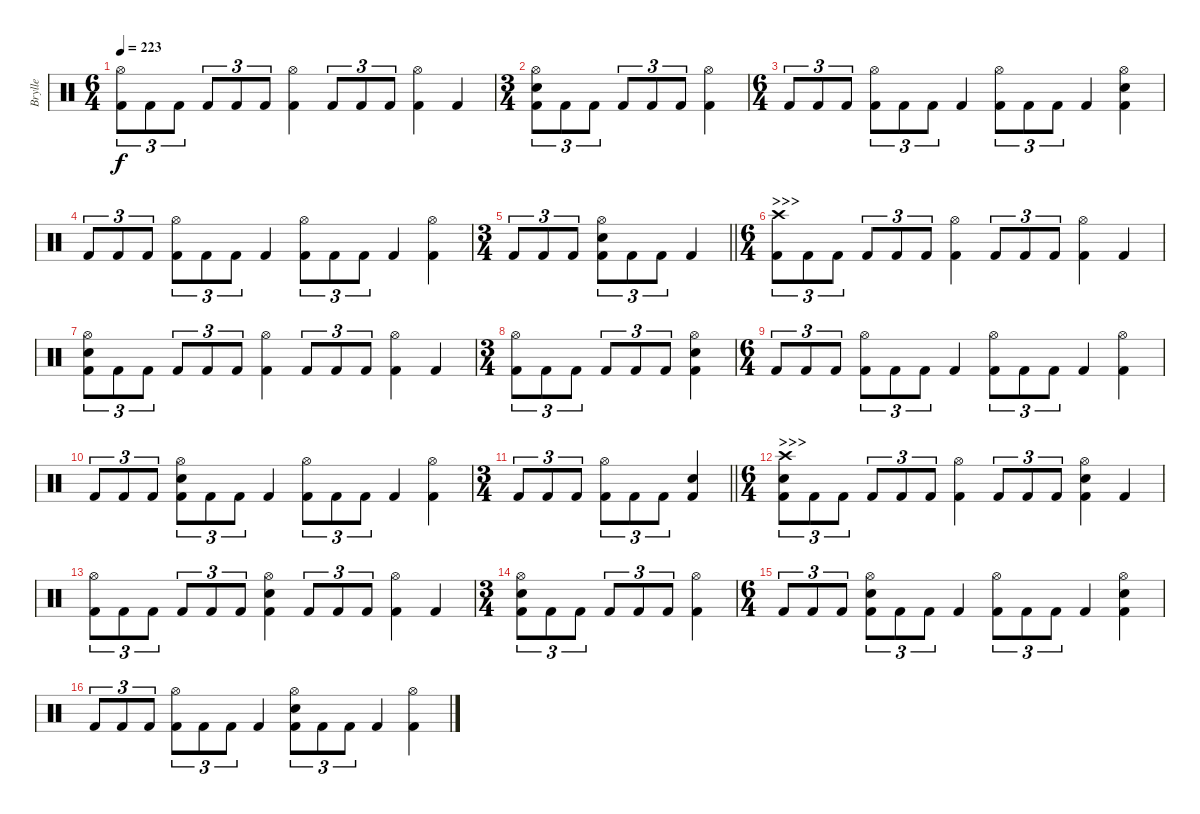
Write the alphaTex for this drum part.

\track ("Brylle" "Brylle") {instrument percussion}
\staff {score}
\articulation defaults
\ts (6 4)
\tempo 223
\clef neutral
\ks c
("Hi-Hat (open)" "Kick (hit) 2").8{tu (3 2) dy f} "Kick (hit) 2".8{tu (3 2)} "Kick (hit) 2".8{tu (3 2)} "Kick (hit) 2".8{tu (3 2)} "Kick (hit) 2".8{tu (3 2)} "Kick (hit) 2".8{tu (3 2)} ("Hi-Hat (open)" "Kick (hit) 2").4 "Kick (hit) 2".8{tu (3 2)} "Kick (hit) 2".8{tu (3 2)} "Kick (hit) 2".8{tu (3 2)} ("Hi-Hat (open)" "Kick (hit) 2").4 "Kick (hit) 2".4 |
\ts (3 4)
("Hi-Hat (open)" "Electric Snare (hit)" "Kick (hit) 2").8{tu (3 2)} "Kick (hit) 2".8{tu (3 2)} "Kick (hit) 2".8{tu (3 2)} "Kick (hit) 2".8{tu (3 2)} "Kick (hit) 2".8{tu (3 2)} "Kick (hit) 2".8{tu (3 2)} ("Hi-Hat (open)" "Kick (hit) 2").4 |
\ts (6 4)
"Kick (hit) 2".8{tu (3 2)} "Kick (hit) 2".8{tu (3 2)} "Kick (hit) 2".8{tu (3 2)} ("Hi-Hat (open)" "Kick (hit) 2").8{tu (3 2)} "Kick (hit) 2".8{tu (3 2)} "Kick (hit) 2".8{tu (3 2)} "Kick (hit) 2".4 ("Hi-Hat (open)" "Kick (hit) 2").8{tu (3 2)} "Kick (hit) 2".8{tu (3 2)} "Kick (hit) 2".8{tu (3 2)} "Kick (hit) 2".4 ("Hi-Hat (open)" "Electric Snare (hit)" "Kick (hit) 2").4 |
"Kick (hit) 2".8{tu (3 2)} "Kick (hit) 2".8{tu (3 2)} "Kick (hit) 2".8{tu (3 2)} ("Hi-Hat (open)" "Kick (hit) 2").8{tu (3 2)} "Kick (hit) 2".8{tu (3 2)} "Kick (hit) 2".8{tu (3 2)} "Kick (hit) 2".4 ("Hi-Hat (open)" "Kick (hit) 2").8{tu (3 2)} "Kick (hit) 2".8{tu (3 2)} "Kick (hit) 2".8{tu (3 2)} "Kick (hit) 2".4 ("Hi-Hat (open)" "Kick (hit) 2").4 |
\ts (3 4)
\barLineRight lightlight "Kick (hit) 2".8{tu (3 2)} "Kick (hit) 2".8{tu (3 2)} "Kick (hit) 2".8{tu (3 2)}
("Hi-Hat (open)" "Electric Snare (hit)" "Kick (hit) 2").8{tu (3 2)} "Kick (hit) 2".8{tu (3 2)} "Kick (hit) 2".8{tu (3 2)} "Kick (hit) 2".4 |
\ts (6 4)
\section ("" ">>>")
("Crash high (hit)" "Kick (hit) 2").8{tu (3 2)} "Kick (hit) 2".8{tu (3 2)} "Kick (hit) 2".8{tu (3 2)} "Kick (hit) 2".8{tu (3 2)} "Kick (hit) 2".8{tu (3 2)} "Kick (hit) 2".8{tu (3 2)} ("Hi-Hat (open)" "Kick (hit) 2").4 "Kick (hit) 2".8{tu (3 2)} "Kick (hit) 2".8{tu (3 2)} "Kick (hit) 2".8{tu (3 2)} ("Hi-Hat (open)" "Kick (hit) 2").4 "Kick (hit) 2".4 |
("Hi-Hat (open)" "Electric Snare (hit)" "Kick (hit) 2").8{tu (3 2)} "Kick (hit) 2".8{tu (3 2)} "Kick (hit) 2".8{tu (3 2)} "Kick (hit) 2".8{tu (3 2)} "Kick (hit) 2".8{tu (3 2)} "Kick (hit) 2".8{tu (3 2)} ("Hi-Hat (open)" "Kick (hit) 2").4 "Kick (hit) 2".8{tu (3 2)} "Kick (hit) 2".8{tu (3 2)} "Kick (hit) 2".8{tu (3 2)} ("Hi-Hat (open)" "Kick (hit) 2").4 "Kick (hit) 2".4 |
\ts (3 4)
("Hi-Hat (open)" "Kick (hit) 2").8{tu (3 2)} "Kick (hit) 2".8{tu (3 2)} "Kick (hit) 2".8{tu (3 2)} "Kick (hit) 2".8{tu (3 2)} "Kick (hit) 2".8{tu (3 2)} "Kick (hit) 2".8{tu (3 2)} ("Hi-Hat (open)" "Electric Snare (hit)" "Kick (hit) 2").4 |
\ts (6 4)
"Kick (hit) 2".8{tu (3 2)} "Kick (hit) 2".8{tu (3 2)} "Kick (hit) 2".8{tu (3 2)} ("Hi-Hat (open)" "Kick (hit) 2").8{tu (3 2)} "Kick (hit) 2".8{tu (3 2)} "Kick (hit) 2".8{tu (3 2)} "Kick (hit) 2".4 ("Hi-Hat (open)" "Kick (hit) 2").8{tu (3 2)} "Kick (hit) 2".8{tu (3 2)} "Kick (hit) 2".8{tu (3 2)} "Kick (hit) 2".4 ("Hi-Hat (open)" "Kick (hit) 2").4 |
"Kick (hit) 2".8{tu (3 2)} "Kick (hit) 2".8{tu (3 2)} "Kick (hit) 2".8{tu (3 2)} ("Hi-Hat (open)" "Electric Snare (hit)" "Kick (hit) 2").8{tu (3 2)} "Kick (hit) 2".8{tu (3 2)} "Kick (hit) 2".8{tu (3 2)} "Kick (hit) 2".4 ("Hi-Hat (open)" "Kick (hit) 2").8{tu (3 2)} "Kick (hit) 2".8{tu (3 2)} "Kick (hit) 2".8{tu (3 2)} "Kick (hit) 2".4 ("Hi-Hat (open)" "Kick (hit) 2").4 |
\ts (3 4)
\barLineRight lightlight "Kick (hit) 2".8{tu (3 2)} "Kick (hit) 2".8{tu (3 2)} "Kick (hit) 2".8{tu (3 2)}
("Hi-Hat (open)" "Kick (hit) 2").8{tu (3 2)} "Kick (hit) 2".8{tu (3 2)} "Kick (hit) 2".8{tu (3 2)} ("Electric Snare (hit)" "Kick (hit) 2").4 |
\ts (6 4)
\section ("" ">>>")
("Crash high (hit)" "Electric Snare (hit)" "Kick (hit) 2").8{tu (3 2)} "Kick (hit) 2".8{tu (3 2)} "Kick (hit) 2".8{tu (3 2)} "Kick (hit) 2".8{tu (3 2)} "Kick (hit) 2".8{tu (3 2)} "Kick (hit) 2".8{tu (3 2)} ("Hi-Hat (open)" "Kick (hit) 2").4 "Kick (hit) 2".8{tu (3 2)} "Kick (hit) 2".8{tu (3 2)} "Kick (hit) 2".8{tu (3 2)} ("Hi-Hat (open)" "Electric Snare (hit)" "Kick (hit) 2").4 "Kick (hit) 2".4 |
("Hi-Hat (open)" "Kick (hit) 2").8{tu (3 2)} "Kick (hit) 2".8{tu (3 2)} "Kick (hit) 2".8{tu (3 2)} "Kick (hit) 2".8{tu (3 2)} "Kick (hit) 2".8{tu (3 2)} "Kick (hit) 2".8{tu (3 2)} ("Hi-Hat (open)" "Electric Snare (hit)" "Kick (hit) 2").4 "Kick (hit) 2".8{tu (3 2)} "Kick (hit) 2".8{tu (3 2)} "Kick (hit) 2".8{tu (3 2)} ("Hi-Hat (open)" "Kick (hit) 2").4 "Kick (hit) 2".4 |
\ts (3 4)
("Hi-Hat (open)" "Electric Snare (hit)" "Kick (hit) 2").8{tu (3 2)} "Kick (hit) 2".8{tu (3 2)} "Kick (hit) 2".8{tu (3 2)} "Kick (hit) 2".8{tu (3 2)} "Kick (hit) 2".8{tu (3 2)} "Kick (hit) 2".8{tu (3 2)} ("Hi-Hat (open)" "Kick (hit) 2").4 |
\ts (6 4)
"Kick (hit) 2".8{tu (3 2)} "Kick (hit) 2".8{tu (3 2)} "Kick (hit) 2".8{tu (3 2)} ("Hi-Hat (open)" "Electric Snare (hit)" "Kick (hit) 2").8{tu (3 2)} "Kick (hit) 2".8{tu (3 2)} "Kick (hit) 2".8{tu (3 2)} "Kick (hit) 2".4 ("Hi-Hat (open)" "Kick (hit) 2").8{tu (3 2)} "Kick (hit) 2".8{tu (3 2)} "Kick (hit) 2".8{tu (3 2)} "Kick (hit) 2".4 ("Hi-Hat (open)" "Electric Snare (hit)" "Kick (hit) 2").4 |
"Kick (hit) 2".8{tu (3 2)} "Kick (hit) 2".8{tu (3 2)} "Kick (hit) 2".8{tu (3 2)} ("Hi-Hat (open)" "Kick (hit) 2").8{tu (3 2)} "Kick (hit) 2".8{tu (3 2)} "Kick (hit) 2".8{tu (3 2)} "Kick (hit) 2".4 ("Hi-Hat (open)" "Electric Snare (hit)" "Kick (hit) 2").8{tu (3 2)} "Kick (hit) 2".8{tu (3 2)} "Kick (hit) 2".8{tu (3 2)} "Kick (hit) 2".4 ("Hi-Hat (open)" "Kick (hit) 2").4
